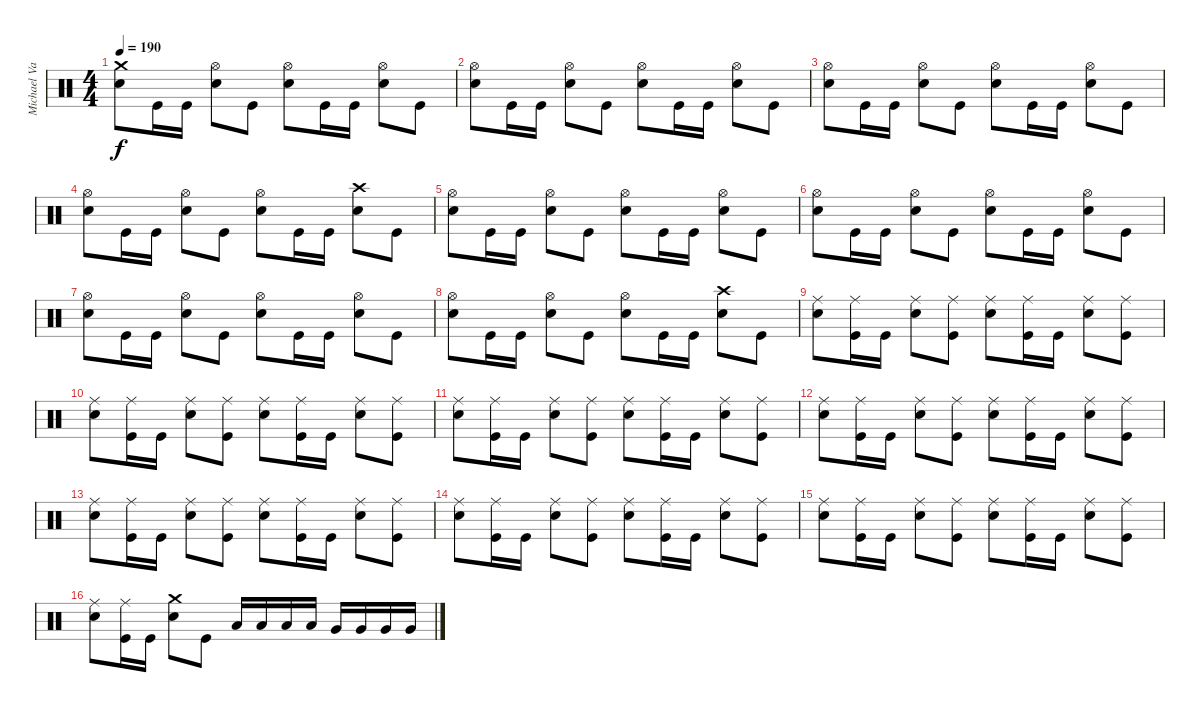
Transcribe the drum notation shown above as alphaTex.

\track ("Michael VanDyne" "Michael Va") {instrument percussion}
\staff {score}
\articulation defaults
\ts (4 4)
\tempo 190
\clef neutral
\ks c
("Crash medium (hit)" "Electric Snare (hit)").8{dy f} "Kick (hit)".16 "Kick (hit)".16 ("Hi-Hat (open)" "Electric Snare (hit)").8 "Kick (hit)".8 ("Hi-Hat (open)" "Electric Snare (hit)").8 "Kick (hit)".16 "Kick (hit)".16 ("Hi-Hat (open)" "Electric Snare (hit)").8 "Kick (hit)".8 |
("Hi-Hat (open)" "Electric Snare (hit)").8 "Kick (hit)".16 "Kick (hit)".16 ("Hi-Hat (open)" "Electric Snare (hit)").8 "Kick (hit)".8 ("Hi-Hat (open)" "Electric Snare (hit)").8 "Kick (hit)".16 "Kick (hit)".16 ("Hi-Hat (open)" "Electric Snare (hit)").8 "Kick (hit)".8 |
("Hi-Hat (open)" "Electric Snare (hit)").8 "Kick (hit)".16 "Kick (hit)".16 ("Hi-Hat (open)" "Electric Snare (hit)").8 "Kick (hit)".8 ("Hi-Hat (open)" "Electric Snare (hit)").8 "Kick (hit)".16 "Kick (hit)".16 ("Hi-Hat (open)" "Electric Snare (hit)").8 "Kick (hit)".8 |
("Hi-Hat (open)" "Electric Snare (hit)").8 "Kick (hit)".16 "Kick (hit)".16 ("Hi-Hat (open)" "Electric Snare (hit)").8 "Kick (hit)".8 ("Hi-Hat (open)" "Electric Snare (hit)").8 "Kick (hit)".16 "Kick (hit)".16 ("Crash high (hit)" "Electric Snare (hit)").8 "Kick (hit)".8 |
("Hi-Hat (open)" "Electric Snare (hit)").8 "Kick (hit)".16 "Kick (hit)".16 ("Hi-Hat (open)" "Electric Snare (hit)").8 "Kick (hit)".8 ("Hi-Hat (open)" "Electric Snare (hit)").8 "Kick (hit)".16 "Kick (hit)".16 ("Hi-Hat (open)" "Electric Snare (hit)").8 "Kick (hit)".8 |
("Hi-Hat (open)" "Electric Snare (hit)").8 "Kick (hit)".16 "Kick (hit)".16 ("Hi-Hat (open)" "Electric Snare (hit)").8 "Kick (hit)".8 ("Hi-Hat (open)" "Electric Snare (hit)").8 "Kick (hit)".16 "Kick (hit)".16 ("Hi-Hat (open)" "Electric Snare (hit)").8 "Kick (hit)".8 |
("Hi-Hat (open)" "Electric Snare (hit)").8 "Kick (hit)".16 "Kick (hit)".16 ("Hi-Hat (open)" "Electric Snare (hit)").8 "Kick (hit)".8 ("Hi-Hat (open)" "Electric Snare (hit)").8 "Kick (hit)".16 "Kick (hit)".16 ("Hi-Hat (open)" "Electric Snare (hit)").8 "Kick (hit)".8 |
("Hi-Hat (open)" "Electric Snare (hit)").8 "Kick (hit)".16 "Kick (hit)".16 ("Hi-Hat (open)" "Electric Snare (hit)").8 "Kick (hit)".8 ("Hi-Hat (open)" "Electric Snare (hit)").8 "Kick (hit)".16 "Kick (hit)".16 ("Crash high (hit)" "Electric Snare (hit)").8 "Kick (hit)".8 |
("Ride (middle)" "Electric Snare (hit)").8 ("Ride (middle)" "Kick (hit)").16 "Kick (hit)".16 ("Ride (middle)" "Electric Snare (hit)").8 ("Ride (middle)" "Kick (hit)").8 ("Ride (middle)" "Electric Snare (hit)").8 ("Ride (middle)" "Kick (hit)").16 "Kick (hit)".16 ("Ride (middle)" "Electric Snare (hit)").8 ("Ride (middle)" "Kick (hit)").8 |
("Ride (middle)" "Electric Snare (hit)").8 ("Ride (middle)" "Kick (hit)").16 "Kick (hit)".16 ("Ride (middle)" "Electric Snare (hit)").8 ("Ride (middle)" "Kick (hit)").8 ("Ride (middle)" "Electric Snare (hit)").8 ("Ride (middle)" "Kick (hit)").16 "Kick (hit)".16 ("Ride (middle)" "Electric Snare (hit)").8 ("Ride (middle)" "Kick (hit)").8 |
("Ride (middle)" "Electric Snare (hit)").8 ("Ride (middle)" "Kick (hit)").16 "Kick (hit)".16 ("Ride (middle)" "Electric Snare (hit)").8 ("Ride (middle)" "Kick (hit)").8 ("Ride (middle)" "Electric Snare (hit)").8 ("Ride (middle)" "Kick (hit)").16 "Kick (hit)".16 ("Ride (middle)" "Electric Snare (hit)").8 ("Ride (middle)" "Kick (hit)").8 |
("Ride (middle)" "Electric Snare (hit)").8 ("Ride (middle)" "Kick (hit)").16 "Kick (hit)".16 ("Ride (middle)" "Electric Snare (hit)").8 ("Ride (middle)" "Kick (hit)").8 ("Ride (middle)" "Electric Snare (hit)").8 ("Ride (middle)" "Kick (hit)").16 "Kick (hit)".16 ("Ride (middle)" "Electric Snare (hit)").8 ("Ride (middle)" "Kick (hit)").8 |
("Ride (middle)" "Electric Snare (hit)").8 ("Ride (middle)" "Kick (hit)").16 "Kick (hit)".16 ("Ride (middle)" "Electric Snare (hit)").8 ("Ride (middle)" "Kick (hit)").8 ("Ride (middle)" "Electric Snare (hit)").8 ("Ride (middle)" "Kick (hit)").16 "Kick (hit)".16 ("Ride (middle)" "Electric Snare (hit)").8 ("Ride (middle)" "Kick (hit)").8 |
("Ride (middle)" "Electric Snare (hit)").8 ("Ride (middle)" "Kick (hit)").16 "Kick (hit)".16 ("Ride (middle)" "Electric Snare (hit)").8 ("Ride (middle)" "Kick (hit)").8 ("Ride (middle)" "Electric Snare (hit)").8 ("Ride (middle)" "Kick (hit)").16 "Kick (hit)".16 ("Ride (middle)" "Electric Snare (hit)").8 ("Ride (middle)" "Kick (hit)").8 |
("Ride (middle)" "Electric Snare (hit)").8 ("Ride (middle)" "Kick (hit)").16 "Kick (hit)".16 ("Ride (middle)" "Electric Snare (hit)").8 ("Ride (middle)" "Kick (hit)").8 ("Ride (middle)" "Electric Snare (hit)").8 ("Ride (middle)" "Kick (hit)").16 "Kick (hit)".16 ("Ride (middle)" "Electric Snare (hit)").8 ("Ride (middle)" "Kick (hit)").8 |
("Ride (middle)" "Electric Snare (hit)").8 ("Ride (middle)" "Kick (hit)").16 "Kick (hit)".16 ("Crash medium (hit)" "Electric Snare (hit)").8 "Kick (hit)".8 "Low Tom (hit)".16 "Low Tom (hit)".16 "Low Tom (hit)".16 "Low Tom (hit)".16 "Very Low Tom (hit)".16 "Very Low Tom (hit)".16 "Very Low Tom (hit)".16 "Very Low Tom (hit)".16
